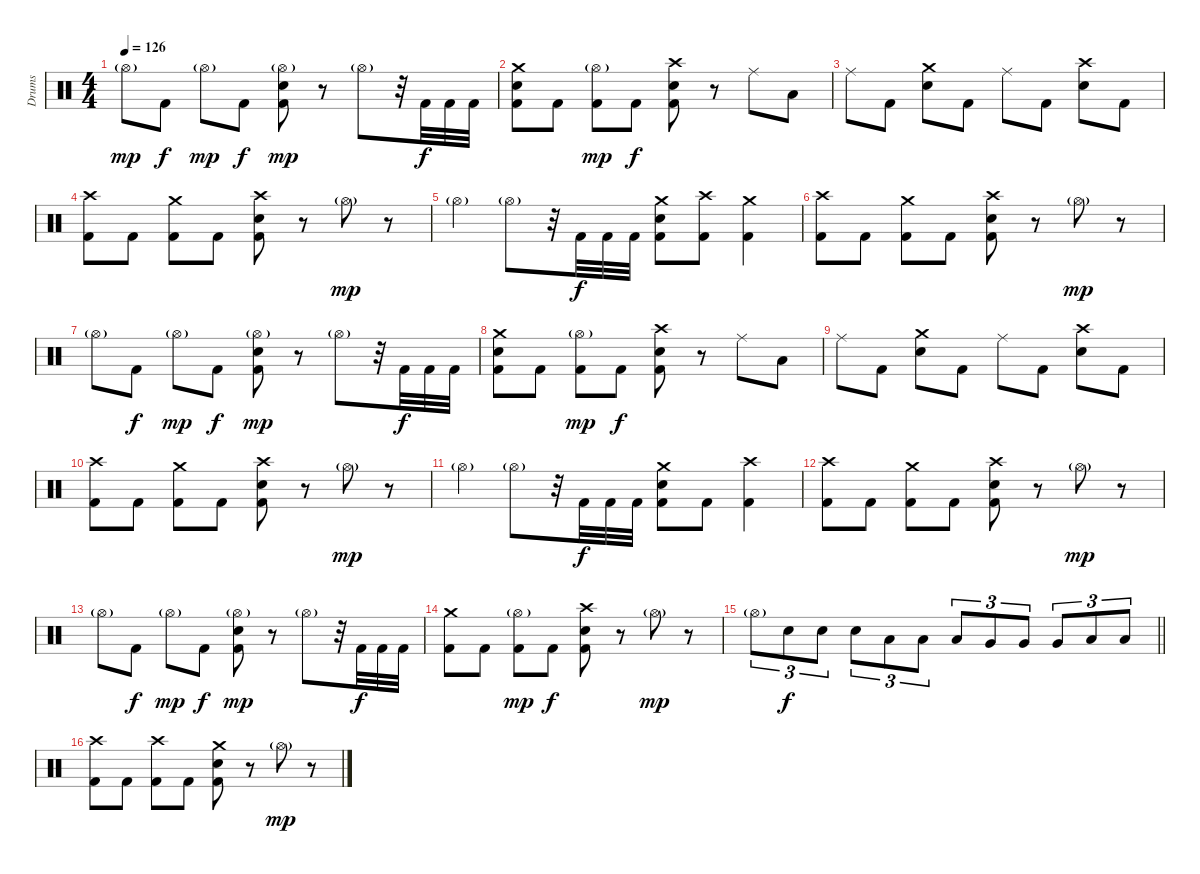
\track ("Drums" "Drums") {instrument percussion}
\staff {score}
\articulation defaults
\ts (4 4)
\tempo 126
\clef neutral
\ks c "Hi-Hat (open)"{g}.8{dy mp} "Kick (hit) 2".8{dy f} "Hi-Hat (open)"{g}.8{dy mp} "Kick (hit) 2".8{dy f}
("Snare (hit) 2" "Hi-Hat (open)"{g} "Kick (hit) 2").8{dy mp} r.8 "Hi-Hat (open)"{g}.8 r.32 "Kick (hit) 2".32{dy f} "Kick (hit) 2".32 "Kick (hit) 2".32 |
("Crash medium (hit)" "Snare (hit) 2" "Kick (hit) 2").8 "Kick (hit) 2".8 ("Hi-Hat (open)"{g} "Kick (hit) 2").8{dy mp} "Kick (hit) 2".8{dy f} ("Crash high (hit)" "Snare (hit) 2" "Kick (hit) 2").8 r.8 "Ride (middle)".8 "Low Tom (hit)".8 |
"Ride (middle)".8 "Kick (hit) 2".8 ("Crash medium (hit)" "Snare (hit) 2").8 "Kick (hit) 2".8 "Ride (middle)".8 "Kick (hit) 2".8 ("Crash high (hit)" "Snare (hit) 2").8 "Kick (hit) 2".8 |
("Crash high (hit)" "Kick (hit) 2").8 "Kick (hit) 2".8 ("Crash medium (hit)" "Kick (hit) 2").8 "Kick (hit) 2".8 ("Crash high (hit)" "Snare (hit) 2" "Kick (hit) 2").8 r.8 "Hi-Hat (open)"{g}.8{dy mp} r.8 |
"Hi-Hat (open)"{g}.4 "Hi-Hat (open)"{g}.8 r.32 "Kick (hit) 2".32{dy f} "Kick (hit) 2".32 "Kick (hit) 2".32 ("Crash medium (hit)" "Snare (hit) 2" "Kick (hit) 2").8 ("Crash high (hit)" "Kick (hit) 2").8 ("Crash medium (hit)" "Kick (hit) 2").4 |
("Crash high (hit)" "Kick (hit) 2").8 "Kick (hit) 2".8 ("Crash medium (hit)" "Kick (hit) 2").8 "Kick (hit) 2".8 ("Crash high (hit)" "Snare (hit) 2" "Kick (hit) 2").8 r.8 "Hi-Hat (open)"{g}.8{dy mp} r.8 |
"Hi-Hat (open)"{g}.8 "Kick (hit) 2".8{dy f} "Hi-Hat (open)"{g}.8{dy mp} "Kick (hit) 2".8{dy f} ("Snare (hit) 2" "Hi-Hat (open)"{g} "Kick (hit) 2").8{dy mp} r.8 "Hi-Hat (open)"{g}.8 r.32 "Kick (hit) 2".32{dy f} "Kick (hit) 2".32 "Kick (hit) 2".32 |
("Crash medium (hit)" "Snare (hit) 2" "Kick (hit) 2").8 "Kick (hit) 2".8 ("Hi-Hat (open)"{g} "Kick (hit) 2").8{dy mp} "Kick (hit) 2".8{dy f} ("Crash high (hit)" "Snare (hit) 2" "Kick (hit) 2").8 r.8 "Ride (middle)".8 "Low Tom (hit)".8 |
"Ride (middle)".8 "Kick (hit) 2".8 ("Crash medium (hit)" "Snare (hit) 2").8 "Kick (hit) 2".8 "Ride (middle)".8 "Kick (hit) 2".8 ("Crash high (hit)" "Snare (hit) 2").8 "Kick (hit) 2".8 |
("Crash high (hit)" "Kick (hit) 2").8 "Kick (hit) 2".8 ("Crash medium (hit)" "Kick (hit) 2").8 "Kick (hit) 2".8 ("Crash high (hit)" "Snare (hit) 2" "Kick (hit) 2").8 r.8 "Hi-Hat (open)"{g}.8{dy mp} r.8 |
"Hi-Hat (open)"{g}.4 "Hi-Hat (open)"{g}.8 r.32 "Kick (hit) 2".32{dy f} "Kick (hit) 2".32 "Kick (hit) 2".32 ("Crash medium (hit)" "Snare (hit) 2" "Kick (hit) 2").8 "Kick (hit) 2".8 ("Crash high (hit)" "Kick (hit) 2").4 |
("Crash high (hit)" "Kick (hit) 2").8 "Kick (hit) 2".8 ("Crash medium (hit)" "Kick (hit) 2").8 "Kick (hit) 2".8 ("Crash high (hit)" "Snare (hit) 2" "Kick (hit) 2").8 r.8 "Hi-Hat (open)"{g}.8{dy mp} r.8 |
"Hi-Hat (open)"{g}.8 "Kick (hit) 2".8{dy f} "Hi-Hat (open)"{g}.8{dy mp} "Kick (hit) 2".8{dy f} ("Snare (hit) 2" "Hi-Hat (open)"{g} "Kick (hit) 2").8{dy mp} r.8 "Hi-Hat (open)"{g}.8 r.32 "Kick (hit) 2".32{dy f} "Kick (hit) 2".32 "Kick (hit) 2".32 |
("Crash medium (hit)" "Kick (hit) 2").8 "Kick (hit) 2".8 ("Hi-Hat (open)"{g} "Kick (hit) 2").8{dy mp} "Kick (hit) 2".8{dy f} ("Crash high (hit)" "Snare (hit) 2" "Kick (hit) 2").8 r.8 "Hi-Hat (open)"{g}.8{dy mp} r.8 |
\barLineRight lightlight "Hi-Hat (open)"{g}.8{tu (3 2)} "Snare (hit) 2".8{tu (3 2) dy f} "Snare (hit) 2".8{tu (3 2)} "Snare (hit) 2".8{tu (3 2)} "Low Tom (hit)".8{tu (3 2)} "Low Tom (hit)".8{tu (3 2)} "Low Tom (hit)".8{tu (3 2)} "Very Low Tom (hit)".8{tu (3 2)} "Very Low Tom (hit)".8{tu (3 2)} "Very Low Tom (hit)".8{tu (3 2)} "Low Floor Tom (hit)".8{tu (3 2)} "Low Floor Tom (hit)".8{tu (3 2)}
|
("Crash high (hit)" "Kick (hit) 2").8 "Kick (hit) 2".8 ("Crash high (hit)" "Kick (hit) 2").8 "Kick (hit) 2".8 ("Crash medium (hit)" "Snare (hit) 2" "Kick (hit) 2").8 r.8 "Hi-Hat (open)"{g}.8{dy mp} r.8
